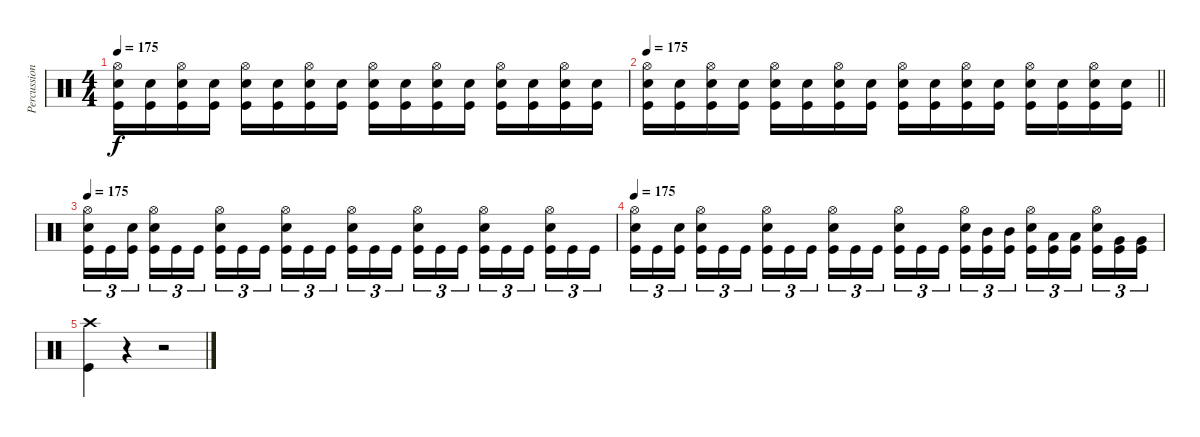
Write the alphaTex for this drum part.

\track ("Percussion" "Percussion") {instrument percussion}
\staff {score}
\articulation defaults
\ts (4 4)
\tempo 175
\clef neutral
\ks c
("Hi-Hat (open)" "Electric Snare (hit)" "Kick (hit)").16{dy f} ("Electric Snare (hit)" "Kick (hit)").16 ("Hi-Hat (open)" "Electric Snare (hit)" "Kick (hit)").16 ("Electric Snare (hit)" "Kick (hit)").16 ("Hi-Hat (open)" "Electric Snare (hit)" "Kick (hit)").16 ("Electric Snare (hit)" "Kick (hit)").16 ("Hi-Hat (open)" "Electric Snare (hit)" "Kick (hit)").16 ("Electric Snare (hit)" "Kick (hit)").16 ("Hi-Hat (open)" "Electric Snare (hit)" "Kick (hit)").16 ("Electric Snare (hit)" "Kick (hit)").16 ("Hi-Hat (open)" "Electric Snare (hit)" "Kick (hit)").16 ("Electric Snare (hit)" "Kick (hit)").16 ("Hi-Hat (open)" "Electric Snare (hit)" "Kick (hit)").16 ("Electric Snare (hit)" "Kick (hit)").16 ("Hi-Hat (open)" "Electric Snare (hit)" "Kick (hit)").16 ("Electric Snare (hit)" "Kick (hit)").16 |
\tempo 175
\barLineRight lightlight
("Hi-Hat (open)" "Electric Snare (hit)" "Kick (hit)").16 ("Electric Snare (hit)" "Kick (hit)").16 ("Hi-Hat (open)" "Electric Snare (hit)" "Kick (hit)").16 ("Electric Snare (hit)" "Kick (hit)").16 ("Hi-Hat (open)" "Electric Snare (hit)" "Kick (hit)").16 ("Electric Snare (hit)" "Kick (hit)").16 ("Hi-Hat (open)" "Electric Snare (hit)" "Kick (hit)").16 ("Electric Snare (hit)" "Kick (hit)").16 ("Hi-Hat (open)" "Electric Snare (hit)" "Kick (hit)").16 ("Electric Snare (hit)" "Kick (hit)").16 ("Hi-Hat (open)" "Electric Snare (hit)" "Kick (hit)").16 ("Electric Snare (hit)" "Kick (hit)").16 ("Hi-Hat (open)" "Electric Snare (hit)" "Kick (hit)").16 ("Electric Snare (hit)" "Kick (hit)").16 ("Hi-Hat (open)" "Electric Snare (hit)" "Kick (hit)").16 ("Electric Snare (hit)" "Kick (hit)").16 |
\tempo 175
("Hi-Hat (open)" "Electric Snare (hit)" "Kick (hit)").16{tu (3 2)} "Kick (hit)".16{tu (3 2)} ("Electric Snare (hit)" "Kick (hit)").16{tu (3 2)} ("Hi-Hat (open)" "Electric Snare (hit)" "Kick (hit)").16{tu (3 2)} "Kick (hit)".16{tu (3 2)} "Kick (hit)".16{tu (3 2)} ("Hi-Hat (open)" "Electric Snare (hit)" "Kick (hit)").16{tu (3 2)} "Kick (hit)".16{tu (3 2)} "Kick (hit)".16{tu (3 2)} ("Hi-Hat (open)" "Electric Snare (hit)" "Kick (hit)").16{tu (3 2)} "Kick (hit)".16{tu (3 2)} "Kick (hit)".16{tu (3 2)} ("Hi-Hat (open)" "Electric Snare (hit)" "Kick (hit)").16{tu (3 2)} "Kick (hit)".16{tu (3 2)} "Kick (hit)".16{tu (3 2)} ("Hi-Hat (open)" "Electric Snare (hit)" "Kick (hit)").16{tu (3 2)} "Kick (hit)".16{tu (3 2)} "Kick (hit)".16{tu (3 2)} ("Hi-Hat (open)" "Electric Snare (hit)" "Kick (hit)").16{tu (3 2)} "Kick (hit)".16{tu (3 2)} "Kick (hit)".16{tu (3 2)} ("Hi-Hat (open)" "Electric Snare (hit)" "Kick (hit)").16{tu (3 2)} "Kick (hit)".16{tu (3 2)} "Kick (hit)".16{tu (3 2)} |
\tempo 175
("Hi-Hat (open)" "Electric Snare (hit)" "Kick (hit)").16{tu (3 2)} "Kick (hit)".16{tu (3 2)} ("Electric Snare (hit)" "Kick (hit)").16{tu (3 2)} ("Hi-Hat (open)" "Electric Snare (hit)" "Kick (hit)").16{tu (3 2)} "Kick (hit)".16{tu (3 2)} "Kick (hit)".16{tu (3 2)} ("Hi-Hat (open)" "Electric Snare (hit)" "Kick (hit)").16{tu (3 2)} "Kick (hit)".16{tu (3 2)} "Kick (hit)".16{tu (3 2)} ("Hi-Hat (open)" "Electric Snare (hit)" "Kick (hit)").16{tu (3 2)} "Kick (hit)".16{tu (3 2)} "Kick (hit)".16{tu (3 2)} ("Hi-Hat (open)" "Electric Snare (hit)" "Kick (hit)").16{tu (3 2)} "Kick (hit)".16{tu (3 2)} "Kick (hit)".16{tu (3 2)} ("Hi-Hat (open)" "Electric Snare (hit)" "Kick (hit)").16{tu (3 2)} ("Mid Tom (hit)" "Kick (hit)").16{tu (3 2)} ("Mid Tom (hit)" "Kick (hit)").16{tu (3 2)} ("Hi-Hat (open)" "Electric Snare (hit)" "Kick (hit)").16{tu (3 2)} ("Low Tom (hit)" "Kick (hit)").16{tu (3 2)} ("Low Tom (hit)" "Kick (hit)").16{tu (3 2)} ("Hi-Hat (open)" "Electric Snare (hit)" "Kick (hit)").16{tu (3 2)} ("Very Low Tom (hit)" "Kick (hit)").16{tu (3 2)} ("Very Low Tom (hit)" "Kick (hit)").16{tu (3 2)} |
("Crash high (hit)" "Kick (hit)").4 r.4 r.2
